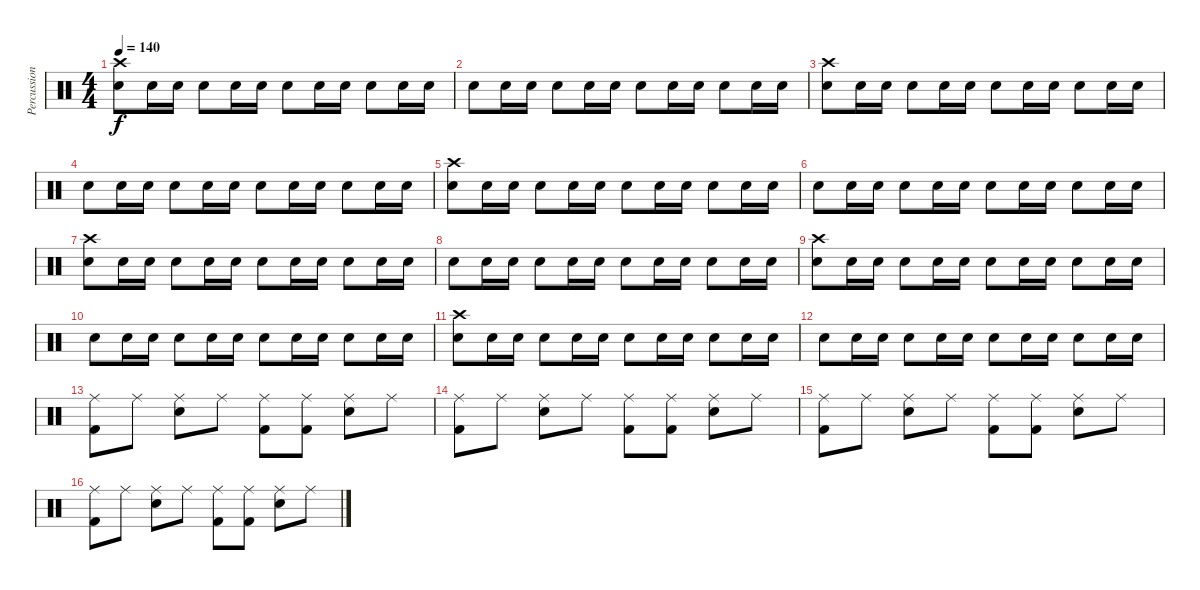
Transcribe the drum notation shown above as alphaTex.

\track ("Percussion" "Percussion") {instrument percussion}
\staff {score}
\articulation defaults
\ts (4 4)
\tempo 140
\clef neutral
\ks c
("Crash high (hit)" "Snare (hit) 2").8{dy f} "Snare (hit) 2".16 "Snare (hit) 2".16 "Snare (hit) 2".8 "Snare (hit) 2".16 "Snare (hit) 2".16 "Snare (hit) 2".8 "Snare (hit) 2".16 "Snare (hit) 2".16 "Snare (hit) 2".8 "Snare (hit) 2".16 "Snare (hit) 2".16 |
"Snare (hit) 2".8 "Snare (hit) 2".16 "Snare (hit) 2".16 "Snare (hit) 2".8 "Snare (hit) 2".16 "Snare (hit) 2".16 "Snare (hit) 2".8 "Snare (hit) 2".16 "Snare (hit) 2".16 "Snare (hit) 2".8 "Snare (hit) 2".16 "Snare (hit) 2".16 |
("Crash high (hit)" "Snare (hit) 2").8 "Snare (hit) 2".16 "Snare (hit) 2".16 "Snare (hit) 2".8 "Snare (hit) 2".16 "Snare (hit) 2".16 "Snare (hit) 2".8 "Snare (hit) 2".16 "Snare (hit) 2".16 "Snare (hit) 2".8 "Snare (hit) 2".16 "Snare (hit) 2".16 |
"Snare (hit) 2".8 "Snare (hit) 2".16 "Snare (hit) 2".16 "Snare (hit) 2".8 "Snare (hit) 2".16 "Snare (hit) 2".16 "Snare (hit) 2".8 "Snare (hit) 2".16 "Snare (hit) 2".16 "Snare (hit) 2".8 "Snare (hit) 2".16 "Snare (hit) 2".16 |
("Crash high (hit)" "Snare (hit) 2").8 "Snare (hit) 2".16 "Snare (hit) 2".16 "Snare (hit) 2".8 "Snare (hit) 2".16 "Snare (hit) 2".16 "Snare (hit) 2".8 "Snare (hit) 2".16 "Snare (hit) 2".16 "Snare (hit) 2".8 "Snare (hit) 2".16 "Snare (hit) 2".16 |
"Snare (hit) 2".8 "Snare (hit) 2".16 "Snare (hit) 2".16 "Snare (hit) 2".8 "Snare (hit) 2".16 "Snare (hit) 2".16 "Snare (hit) 2".8 "Snare (hit) 2".16 "Snare (hit) 2".16 "Snare (hit) 2".8 "Snare (hit) 2".16 "Snare (hit) 2".16 |
("Crash high (hit)" "Snare (hit) 2").8 "Snare (hit) 2".16 "Snare (hit) 2".16 "Snare (hit) 2".8 "Snare (hit) 2".16 "Snare (hit) 2".16 "Snare (hit) 2".8 "Snare (hit) 2".16 "Snare (hit) 2".16 "Snare (hit) 2".8 "Snare (hit) 2".16 "Snare (hit) 2".16 |
"Snare (hit) 2".8 "Snare (hit) 2".16 "Snare (hit) 2".16 "Snare (hit) 2".8 "Snare (hit) 2".16 "Snare (hit) 2".16 "Snare (hit) 2".8 "Snare (hit) 2".16 "Snare (hit) 2".16 "Snare (hit) 2".8 "Snare (hit) 2".16 "Snare (hit) 2".16 |
("Crash high (hit)" "Snare (hit) 2").8 "Snare (hit) 2".16 "Snare (hit) 2".16 "Snare (hit) 2".8 "Snare (hit) 2".16 "Snare (hit) 2".16 "Snare (hit) 2".8 "Snare (hit) 2".16 "Snare (hit) 2".16 "Snare (hit) 2".8 "Snare (hit) 2".16 "Snare (hit) 2".16 |
"Snare (hit) 2".8 "Snare (hit) 2".16 "Snare (hit) 2".16 "Snare (hit) 2".8 "Snare (hit) 2".16 "Snare (hit) 2".16 "Snare (hit) 2".8 "Snare (hit) 2".16 "Snare (hit) 2".16 "Snare (hit) 2".8 "Snare (hit) 2".16 "Snare (hit) 2".16 |
("Crash high (hit)" "Snare (hit) 2").8 "Snare (hit) 2".16 "Snare (hit) 2".16 "Snare (hit) 2".8 "Snare (hit) 2".16 "Snare (hit) 2".16 "Snare (hit) 2".8 "Snare (hit) 2".16 "Snare (hit) 2".16 "Snare (hit) 2".8 "Snare (hit) 2".16 "Snare (hit) 2".16 |
"Snare (hit) 2".8 "Snare (hit) 2".16 "Snare (hit) 2".16 "Snare (hit) 2".8 "Snare (hit) 2".16 "Snare (hit) 2".16 "Snare (hit) 2".8 "Snare (hit) 2".16 "Snare (hit) 2".16 "Snare (hit) 2".8 "Snare (hit) 2".16 "Snare (hit) 2".16 |
("Ride (middle)" "Kick (hit) 2").8 "Ride (middle)".8 ("Ride (middle)" "Snare (hit) 2").8 "Ride (middle)".8 ("Ride (middle)" "Kick (hit) 2").8 ("Ride (middle)" "Kick (hit) 2").8 ("Ride (middle)" "Snare (hit) 2").8 "Ride (middle)".8 |
("Ride (middle)" "Kick (hit) 2").8 "Ride (middle)".8 ("Ride (middle)" "Snare (hit) 2").8 "Ride (middle)".8 ("Ride (middle)" "Kick (hit) 2").8 ("Ride (middle)" "Kick (hit) 2").8 ("Ride (middle)" "Snare (hit) 2").8 "Ride (middle)".8 |
("Ride (middle)" "Kick (hit) 2").8 "Ride (middle)".8 ("Ride (middle)" "Snare (hit) 2").8 "Ride (middle)".8 ("Ride (middle)" "Kick (hit) 2").8 ("Ride (middle)" "Kick (hit) 2").8 ("Ride (middle)" "Snare (hit) 2").8 "Ride (middle)".8 |
("Ride (middle)" "Kick (hit) 2").8 "Ride (middle)".8 ("Ride (middle)" "Snare (hit) 2").8 "Ride (middle)".8 ("Ride (middle)" "Kick (hit) 2").8 ("Ride (middle)" "Kick (hit) 2").8 ("Ride (middle)" "Snare (hit) 2").8 "Ride (middle)".8
